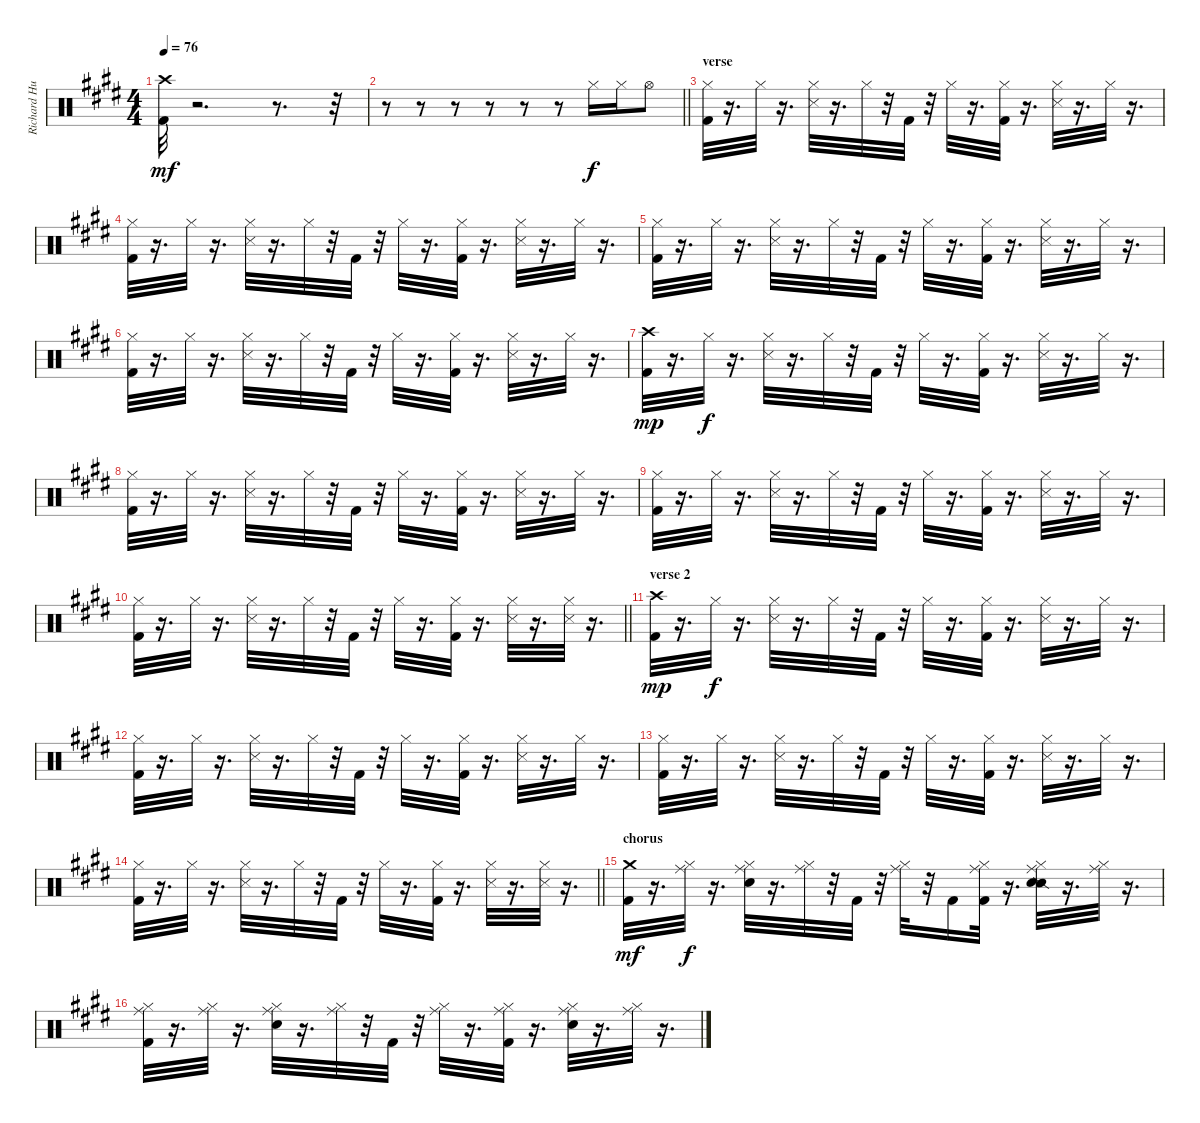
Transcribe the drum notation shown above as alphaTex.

\track ("Richard Hughes" "Richard Hu") {instrument percussion}
\staff {score}
\articulation defaults
\ts (4 4)
\tempo 76
\clef neutral
\ks e
("Kick (hit) 2" "Crash high (hit)").32{dy mf} r.2{d} r.8{d} r.32 |
\barLineRight lightlight
r.8 r.8 r.8 r.8 r.8 r.8 "Hi-Hat (closed)".16{dy f} "Hi-Hat (closed)".16 "Hi-Hat (open)".8 |
\section ("" "verse")
("Kick (hit) 2" "Hi-Hat (closed)").32 r.16{d} "Hi-Hat (closed)".32 r.16{d} ("Snare (side stick) 3" "Hi-Hat (closed)").32 r.16{d} "Hi-Hat (closed)".32 r.32 "Kick (hit) 2".32 r.32 "Hi-Hat (closed)".32 r.16{d} ("Kick (hit) 2" "Hi-Hat (closed)").32 r.16{d} ("Snare (side stick) 3" "Hi-Hat (closed)").32 r.16{d} "Hi-Hat (closed)".32 r.16{d} |
("Kick (hit) 2" "Hi-Hat (closed)").32 r.16{d} "Hi-Hat (closed)".32 r.16{d} ("Snare (side stick) 3" "Hi-Hat (closed)").32 r.16{d} "Hi-Hat (closed)".32 r.32 "Kick (hit) 2".32 r.32 "Hi-Hat (closed)".32 r.16{d} ("Kick (hit) 2" "Hi-Hat (closed)").32 r.16{d} ("Hi-Hat (closed)" "Snare (side stick) 3").32 r.16{d} "Hi-Hat (closed)".32 r.16{d} |
("Kick (hit) 2" "Hi-Hat (closed)").32 r.16{d} "Hi-Hat (closed)".32 r.16{d} ("Snare (side stick) 3" "Hi-Hat (closed)").32 r.16{d} "Hi-Hat (closed)".32 r.32 "Kick (hit) 2".32 r.32 "Hi-Hat (closed)".32 r.16{d} ("Kick (hit) 2" "Hi-Hat (closed)").32 r.16{d} ("Hi-Hat (closed)" "Snare (side stick) 3").32 r.16{d} "Hi-Hat (closed)".32 r.16{d} |
("Kick (hit) 2" "Hi-Hat (closed)").32 r.16{d} "Hi-Hat (closed)".32 r.16{d} ("Snare (side stick) 3" "Hi-Hat (closed)").32 r.16{d} "Hi-Hat (closed)".32 r.32 "Kick (hit) 2".32 r.32 "Hi-Hat (closed)".32 r.16{d} ("Kick (hit) 2" "Hi-Hat (closed)").32 r.16{d} ("Hi-Hat (closed)" "Snare (side stick) 3").32 r.16{d} "Hi-Hat (closed)".32 r.16{d} |
("Kick (hit) 2" "Crash high (hit)").32{dy mp} r.16{d} "Hi-Hat (closed)".32{dy f} r.16{d} ("Hi-Hat (closed)" "Snare (side stick) 3").32 r.16{d} "Hi-Hat (closed)".32 r.32 "Kick (hit) 2".32 r.32 "Hi-Hat (closed)".32 r.16{d} ("Kick (hit) 2" "Hi-Hat (closed)").32 r.16{d} ("Snare (side stick) 3" "Hi-Hat (closed)").32 r.16{d} "Hi-Hat (closed)".32 r.16{d} |
("Kick (hit) 2" "Hi-Hat (closed)").32 r.16{d} "Hi-Hat (closed)".32 r.16{d} ("Snare (side stick) 3" "Hi-Hat (closed)").32 r.16{d} "Hi-Hat (closed)".32 r.32 "Kick (hit) 2".32 r.32 "Hi-Hat (closed)".32 r.16{d} ("Kick (hit) 2" "Hi-Hat (closed)").32 r.16{d} ("Snare (side stick) 3" "Hi-Hat (closed)").32 r.16{d} "Hi-Hat (closed)".32 r.16{d} |
("Kick (hit) 2" "Hi-Hat (closed)").32 r.16{d} "Hi-Hat (closed)".32 r.16{d} ("Hi-Hat (closed)" "Snare (side stick) 3").32 r.16{d} "Hi-Hat (closed)".32 r.32 "Kick (hit) 2".32 r.32 "Hi-Hat (closed)".32 r.16{d} ("Kick (hit) 2" "Hi-Hat (closed)").32 r.16{d} ("Snare (side stick) 3" "Hi-Hat (closed)").32 r.16{d} "Hi-Hat (closed)".32 r.16{d} |
\barLineRight lightlight
("Kick (hit) 2" "Hi-Hat (closed)").32 r.16{d} "Hi-Hat (closed)".32 r.16{d} ("Hi-Hat (closed)" "Snare (side stick) 3").32 r.16{d} "Hi-Hat (closed)".32 r.32 "Kick (hit) 2".32 r.32 "Hi-Hat (closed)".32 r.16{d} ("Kick (hit) 2" "Hi-Hat (closed)").32 r.16{d} ("Hi-Hat (closed)" "Snare (side stick) 3").32 r.16{d} ("Snare (side stick) 3" "Hi-Hat (closed)").32 r.16{d} |
\section ("" "verse 2")
("Kick (hit) 2" "Crash high (hit)").32{dy mp} r.16{d} "Hi-Hat (closed)".32{dy f} r.16{d} ("Hi-Hat (closed)" "Snare (side stick) 3").32 r.16{d} "Hi-Hat (closed)".32 r.32 "Kick (hit) 2".32 r.32 "Hi-Hat (closed)".32 r.16{d} ("Kick (hit) 2" "Hi-Hat (closed)").32 r.16{d} ("Snare (side stick) 3" "Hi-Hat (closed)").32 r.16{d} "Hi-Hat (closed)".32 r.16{d} |
("Kick (hit) 2" "Hi-Hat (closed)").32 r.16{d} "Hi-Hat (closed)".32 r.16{d} ("Snare (side stick) 3" "Hi-Hat (closed)").32 r.16{d} "Hi-Hat (closed)".32 r.32 "Kick (hit) 2".32 r.32 "Hi-Hat (closed)".32 r.16{d} ("Kick (hit) 2" "Hi-Hat (closed)").32 r.16{d} ("Snare (side stick) 3" "Hi-Hat (closed)").32 r.16{d} "Hi-Hat (closed)".32 r.16{d} |
("Kick (hit) 2" "Hi-Hat (closed)").32 r.16{d} "Hi-Hat (closed)".32 r.16{d} ("Hi-Hat (closed)" "Snare (side stick) 3").32 r.16{d} "Hi-Hat (closed)".32 r.32 "Kick (hit) 2".32 r.32 "Hi-Hat (closed)".32 r.16{d} ("Kick (hit) 2" "Hi-Hat (closed)").32 r.16{d} ("Snare (side stick) 3" "Hi-Hat (closed)").32 r.16{d} "Hi-Hat (closed)".32 r.16{d} |
\barLineRight lightlight
("Kick (hit) 2" "Hi-Hat (closed)").32 r.16{d} "Hi-Hat (closed)".32 r.16{d} ("Hi-Hat (closed)" "Snare (side stick) 3").32 r.16{d} "Hi-Hat (closed)".32 r.32 "Kick (hit) 2".32 r.32 "Hi-Hat (closed)".32 r.16{d} ("Kick (hit) 2" "Hi-Hat (closed)").32 r.16{d} ("Hi-Hat (closed)" "Snare (side stick) 3").32 r.16{d} ("Snare (side stick) 3" "Hi-Hat (closed)").32 r.16{d} |
\section ("" "chorus")
("Kick (hit) 2" "Crash medium (hit)").32{dy mf} r.16{d} ("Ride (middle)" "Hi-Hat (closed)").32{dy f} r.16{d} ("Hi-Hat (closed)" "Ride (middle)" "Electric Snare (hit)").32 r.16{d} ("Ride (middle)" "Hi-Hat (closed)").32 r.32 "Kick (hit) 2".32 r.32 ("Ride (middle)" "Hi-Hat (closed)").32 r.32 "Kick (hit) 2".16 ("Kick (hit) 2" "Hi-Hat (closed)" "Ride (middle)").32 r.16{d} ("Hi-Hat (closed)" "Ride (middle)" "Snare (side stick) 2" "Electric Snare (hit)").32 r.16{d} ("Hi-Hat (closed)" "Ride (middle)").32 r.16{d} |
("Kick (hit) 2" "Ride (middle)" "Hi-Hat (closed)").32 r.16{d} ("Ride (middle)" "Hi-Hat (closed)").32 r.16{d} ("Ride (middle)" "Hi-Hat (closed)" "Electric Snare (hit)").32 r.16{d} ("Hi-Hat (closed)" "Ride (middle)").32 r.32 "Kick (hit) 2".32 r.32 ("Ride (middle)" "Hi-Hat (closed)").32 r.16{d} ("Kick (hit) 2" "Ride (middle)" "Hi-Hat (closed)").32 r.16{d} ("Ride (middle)" "Hi-Hat (closed)" "Electric Snare (hit)").32 r.16{d} ("Ride (middle)" "Hi-Hat (closed)").32 r.16{d}
